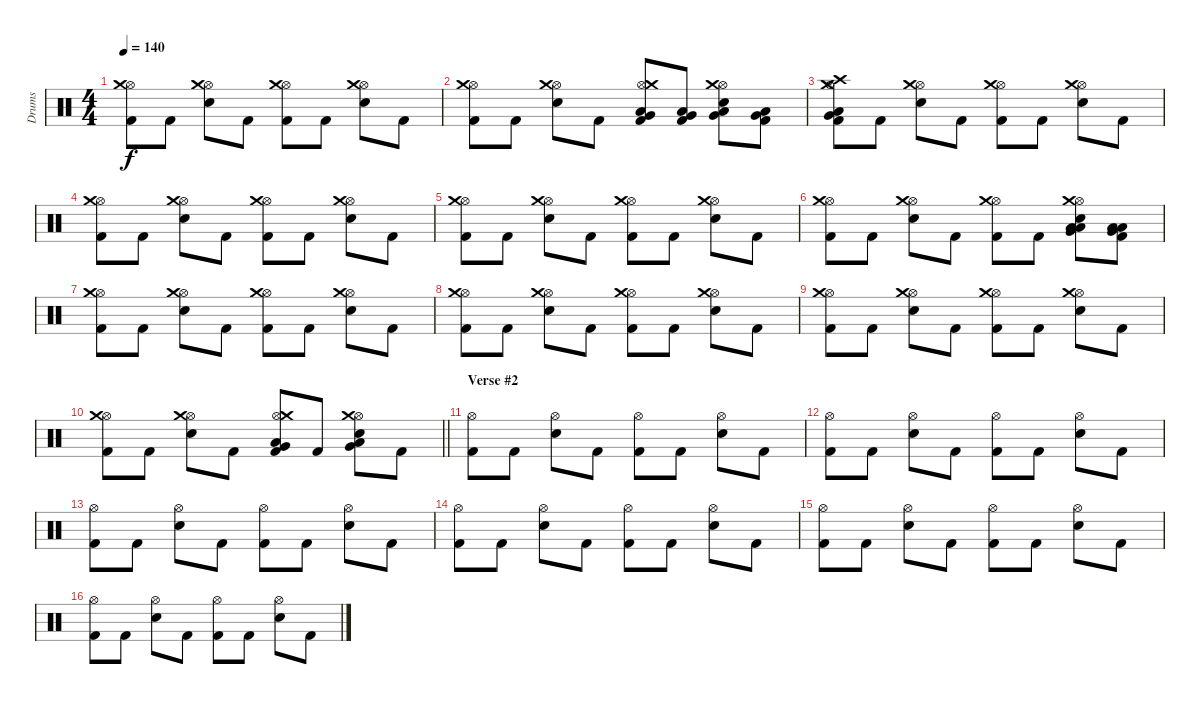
\track ("Drums" "Drums") {instrument percussion}
\staff {score}
\articulation defaults
\ts (4 4)
\tempo 140
\clef neutral
\ks c
("Kick (hit) 2" "Hi-Hat (open)" "Crash medium (hit)").8{dy f} "Kick (hit) 2".8 ("Electric Snare (hit)" "Hi-Hat (open)" "Crash medium (hit)").8 "Kick (hit) 2".8 ("Kick (hit) 2" "Hi-Hat (open)" "Crash medium (hit)").8 "Kick (hit) 2".8 ("Electric Snare (hit)" "Hi-Hat (open)" "Crash medium (hit)").8 "Kick (hit) 2".8 |
("Kick (hit) 2" "Hi-Hat (open)" "Crash medium (hit)").8 "Kick (hit) 2".8 ("Electric Snare (hit)" "Hi-Hat (open)" "Crash medium (hit)").8 "Kick (hit) 2".8 ("Kick (hit) 2" "Hi-Hat (open)" "Crash medium (hit)" "Very Low Tom (hit)" "Low Tom (hit)").8 ("Kick (hit) 2" "Very Low Tom (hit)" "Low Tom (hit)").8 ("Electric Snare (hit)" "Hi-Hat (open)" "Crash medium (hit)" "Very Low Tom (hit)" "Low Tom (hit)").8 ("Kick (hit) 2" "Very Low Tom (hit)" "Low Tom (hit)").8 |
("Kick (hit) 2" "Hi-Hat (open)" "Crash medium (hit)" "Very Low Tom (hit)" "Low Tom (hit)" "Crash high (hit)").8 "Kick (hit) 2".8 ("Electric Snare (hit)" "Hi-Hat (open)" "Crash medium (hit)").8 "Kick (hit) 2".8 ("Kick (hit) 2" "Hi-Hat (open)" "Crash medium (hit)").8 "Kick (hit) 2".8 ("Electric Snare (hit)" "Hi-Hat (open)" "Crash medium (hit)").8 "Kick (hit) 2".8 |
("Kick (hit) 2" "Hi-Hat (open)" "Crash medium (hit)").8 "Kick (hit) 2".8 ("Electric Snare (hit)" "Hi-Hat (open)" "Crash medium (hit)").8 "Kick (hit) 2".8 ("Kick (hit) 2" "Hi-Hat (open)" "Crash medium (hit)").8 "Kick (hit) 2".8 ("Electric Snare (hit)" "Hi-Hat (open)" "Crash medium (hit)").8 "Kick (hit) 2".8 |
("Kick (hit) 2" "Hi-Hat (open)" "Crash medium (hit)").8 "Kick (hit) 2".8 ("Electric Snare (hit)" "Hi-Hat (open)" "Crash medium (hit)").8 "Kick (hit) 2".8 ("Kick (hit) 2" "Hi-Hat (open)" "Crash medium (hit)").8 "Kick (hit) 2".8 ("Electric Snare (hit)" "Hi-Hat (open)" "Crash medium (hit)").8 "Kick (hit) 2".8 |
("Kick (hit) 2" "Hi-Hat (open)" "Crash medium (hit)").8 "Kick (hit) 2".8 ("Electric Snare (hit)" "Hi-Hat (open)" "Crash medium (hit)").8 "Kick (hit) 2".8 ("Kick (hit) 2" "Hi-Hat (open)" "Crash medium (hit)").8 "Kick (hit) 2".8 ("Electric Snare (hit)" "Hi-Hat (open)" "Crash medium (hit)" "Low Floor Tom (hit)" "Very Low Tom (hit)" "Low Tom (hit)").8 ("Kick (hit) 2" "Low Floor Tom (hit)" "Very Low Tom (hit)" "Low Tom (hit)").8 |
("Kick (hit) 2" "Hi-Hat (open)" "Crash medium (hit)").8 "Kick (hit) 2".8 ("Electric Snare (hit)" "Hi-Hat (open)" "Crash medium (hit)").8 "Kick (hit) 2".8 ("Kick (hit) 2" "Hi-Hat (open)" "Crash medium (hit)").8 "Kick (hit) 2".8 ("Electric Snare (hit)" "Hi-Hat (open)" "Crash medium (hit)").8 "Kick (hit) 2".8 |
("Kick (hit) 2" "Hi-Hat (open)" "Crash medium (hit)").8 "Kick (hit) 2".8 ("Electric Snare (hit)" "Hi-Hat (open)" "Crash medium (hit)").8 "Kick (hit) 2".8 ("Kick (hit) 2" "Hi-Hat (open)" "Crash medium (hit)").8 "Kick (hit) 2".8 ("Electric Snare (hit)" "Hi-Hat (open)" "Crash medium (hit)").8 "Kick (hit) 2".8 |
("Kick (hit) 2" "Hi-Hat (open)" "Crash medium (hit)").8 "Kick (hit) 2".8 ("Electric Snare (hit)" "Hi-Hat (open)" "Crash medium (hit)").8 "Kick (hit) 2".8 ("Kick (hit) 2" "Hi-Hat (open)" "Crash medium (hit)").8 "Kick (hit) 2".8 ("Electric Snare (hit)" "Hi-Hat (open)" "Crash medium (hit)").8 "Kick (hit) 2".8 |
\barLineRight lightlight
("Kick (hit) 2" "Hi-Hat (open)" "Crash medium (hit)").8 "Kick (hit) 2".8 ("Electric Snare (hit)" "Hi-Hat (open)" "Crash medium (hit)").8 "Kick (hit) 2".8 ("Kick (hit) 2" "Hi-Hat (open)" "Crash medium (hit)" "Very Low Tom (hit)" "Low Tom (hit)").8 "Kick (hit) 2".8 ("Electric Snare (hit)" "Hi-Hat (open)" "Crash medium (hit)" "Very Low Tom (hit)" "Low Tom (hit)").8 "Kick (hit) 2".8 |
\section ("" "Verse #2")
("Kick (hit) 2" "Hi-Hat (open)").8 "Kick (hit) 2".8 ("Electric Snare (hit)" "Hi-Hat (open)").8 "Kick (hit) 2".8 ("Kick (hit) 2" "Hi-Hat (open)").8 "Kick (hit) 2".8 ("Electric Snare (hit)" "Hi-Hat (open)").8 "Kick (hit) 2".8 |
("Kick (hit) 2" "Hi-Hat (open)").8 "Kick (hit) 2".8 ("Electric Snare (hit)" "Hi-Hat (open)").8 "Kick (hit) 2".8 ("Kick (hit) 2" "Hi-Hat (open)").8 "Kick (hit) 2".8 ("Electric Snare (hit)" "Hi-Hat (open)").8 "Kick (hit) 2".8 |
("Kick (hit) 2" "Hi-Hat (open)").8 "Kick (hit) 2".8 ("Electric Snare (hit)" "Hi-Hat (open)").8 "Kick (hit) 2".8 ("Kick (hit) 2" "Hi-Hat (open)").8 "Kick (hit) 2".8 ("Electric Snare (hit)" "Hi-Hat (open)").8 "Kick (hit) 2".8 |
("Kick (hit) 2" "Hi-Hat (open)").8 "Kick (hit) 2".8 ("Electric Snare (hit)" "Hi-Hat (open)").8 "Kick (hit) 2".8 ("Kick (hit) 2" "Hi-Hat (open)").8 "Kick (hit) 2".8 ("Electric Snare (hit)" "Hi-Hat (open)").8 "Kick (hit) 2".8 |
("Kick (hit) 2" "Hi-Hat (open)").8 "Kick (hit) 2".8 ("Electric Snare (hit)" "Hi-Hat (open)").8 "Kick (hit) 2".8 ("Kick (hit) 2" "Hi-Hat (open)").8 "Kick (hit) 2".8 ("Electric Snare (hit)" "Hi-Hat (open)").8 "Kick (hit) 2".8 |
("Kick (hit) 2" "Hi-Hat (open)").8 "Kick (hit) 2".8 ("Electric Snare (hit)" "Hi-Hat (open)").8 "Kick (hit) 2".8 ("Kick (hit) 2" "Hi-Hat (open)").8 "Kick (hit) 2".8 ("Electric Snare (hit)" "Hi-Hat (open)").8 "Kick (hit) 2".8
